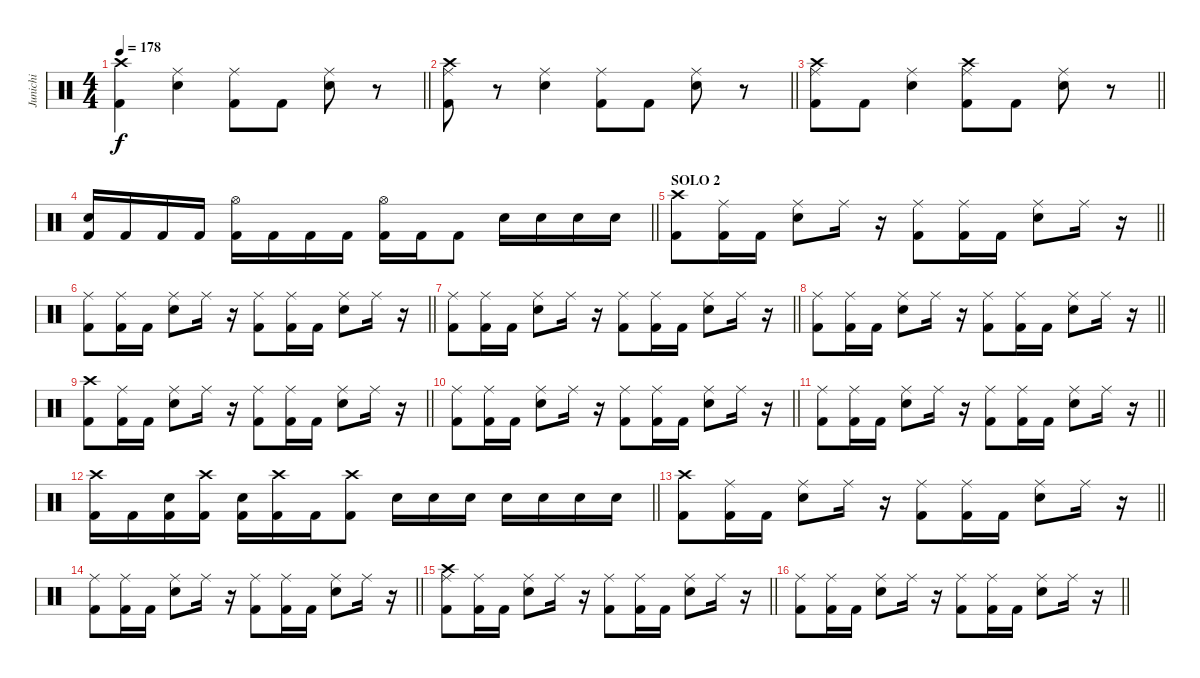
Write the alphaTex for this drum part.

\track ("Junichi" "Junichi") {instrument percussion}
\staff {score}
\articulation defaults
\ts (4 4)
\tempo 178
\clef neutral
\barLineRight lightlight
\ks c
("Crash high (hit)" "Kick (hit) 2").4{dy f} ("Ride (middle)" "Snare (hit) 2").4 ("Ride (middle)" "Kick (hit) 2").8 "Kick (hit) 2".8 ("Ride (middle)" "Snare (hit) 2").8 r.8 |
\barLineRight lightlight
("Crash high (hit)" "Ride (middle)" "Kick (hit) 2").8 r.8 ("Ride (middle)" "Snare (hit) 2").4 ("Ride (middle)" "Kick (hit) 2").8 "Kick (hit) 2".8 ("Ride (middle)" "Snare (hit) 2").8 r.8 |
\barLineRight lightlight
("Crash high (hit)" "Ride (middle)" "Kick (hit) 2").8 "Kick (hit) 2".8 ("Ride (middle)" "Snare (hit) 2").4 ("Crash high (hit)" "Ride (middle)" "Kick (hit) 2").8 "Kick (hit) 2".8 ("Ride (middle)" "Snare (hit) 2").8 r.8 |
\barLineRight lightlight
("Snare (hit) 2" "Kick (hit) 2").16 "Kick (hit) 2".16 "Kick (hit) 2".16 "Kick (hit) 2".16 ("Hi-Hat (open)" "Kick (hit) 2").16 "Kick (hit) 2".16 "Kick (hit) 2".16 "Kick (hit) 2".16 ("Hi-Hat (open)" "Kick (hit) 2").16 "Kick (hit) 2".16 "Kick (hit) 2".8 "Snare (hit) 2".16 "Snare (hit) 2".16 "Snare (hit) 2".16 "Snare (hit) 2".16 |
\section ("" "SOLO 2")
\barLineRight lightlight
("Crash high (hit)" "Kick (hit) 2").8 ("Ride (middle)" "Kick (hit) 2").16 "Kick (hit) 2".16 ("Ride (middle)" "Snare (hit) 2").8 "Ride (middle)".16 r.16 ("Ride (middle)" "Kick (hit) 2").8 ("Ride (middle)" "Kick (hit) 2").16 "Kick (hit) 2".16 ("Ride (middle)" "Snare (hit) 2").8 "Ride (middle)".16 r.16 |
\barLineRight lightlight
("Ride (middle)" "Kick (hit) 2").8 ("Ride (middle)" "Kick (hit) 2").16 "Kick (hit) 2".16 ("Ride (middle)" "Snare (hit) 2").8 "Ride (middle)".16 r.16 ("Ride (middle)" "Kick (hit) 2").8 ("Ride (middle)" "Kick (hit) 2").16 "Kick (hit) 2".16 ("Ride (middle)" "Snare (hit) 2").8 "Ride (middle)".16 r.16 |
\barLineRight lightlight
("Ride (middle)" "Kick (hit) 2").8 ("Ride (middle)" "Kick (hit) 2").16 "Kick (hit) 2".16 ("Ride (middle)" "Snare (hit) 2").8 "Ride (middle)".16 r.16 ("Ride (middle)" "Kick (hit) 2").8 ("Ride (middle)" "Kick (hit) 2").16 "Kick (hit) 2".16 ("Ride (middle)" "Snare (hit) 2").8 "Ride (middle)".16 r.16 |
\barLineRight lightlight
("Ride (middle)" "Kick (hit) 2").8 ("Ride (middle)" "Kick (hit) 2").16 "Kick (hit) 2".16 ("Ride (middle)" "Snare (hit) 2").8 "Ride (middle)".16 r.16 ("Ride (middle)" "Kick (hit) 2").8 ("Ride (middle)" "Kick (hit) 2").16 "Kick (hit) 2".16 ("Ride (middle)" "Snare (hit) 2").8 "Ride (middle)".16 r.16 |
\barLineRight lightlight
("Crash high (hit)" "Kick (hit) 2").8 ("Ride (middle)" "Kick (hit) 2").16 "Kick (hit) 2".16 ("Ride (middle)" "Snare (hit) 2").8 "Ride (middle)".16 r.16 ("Ride (middle)" "Kick (hit) 2").8 ("Ride (middle)" "Kick (hit) 2").16 "Kick (hit) 2".16 ("Ride (middle)" "Snare (hit) 2").8 "Ride (middle)".16 r.16 |
\barLineRight lightlight
("Ride (middle)" "Kick (hit) 2").8 ("Ride (middle)" "Kick (hit) 2").16 "Kick (hit) 2".16 ("Ride (middle)" "Snare (hit) 2").8 "Ride (middle)".16 r.16 ("Ride (middle)" "Kick (hit) 2").8 ("Ride (middle)" "Kick (hit) 2").16 "Kick (hit) 2".16 ("Ride (middle)" "Snare (hit) 2").8 "Ride (middle)".16 r.16 |
\barLineRight lightlight
("Ride (middle)" "Kick (hit) 2").8 ("Ride (middle)" "Kick (hit) 2").16 "Kick (hit) 2".16 ("Ride (middle)" "Snare (hit) 2").8 "Ride (middle)".16 r.16 ("Ride (middle)" "Kick (hit) 2").8 ("Ride (middle)" "Kick (hit) 2").16 "Kick (hit) 2".16 ("Ride (middle)" "Snare (hit) 2").8 "Ride (middle)".16 r.16 |
\barLineRight lightlight
("Crash high (hit)" "Kick (hit) 2").16 "Kick (hit) 2".16 ("Snare (hit) 2" "Kick (hit) 2").16 ("Crash high (hit)" "Kick (hit) 2").16 ("Snare (hit) 2" "Kick (hit) 2").16 ("Crash high (hit)" "Kick (hit) 2").16 "Kick (hit) 2".16 ("Crash high (hit)" "Kick (hit) 2").8 "Snare (hit) 2".16 "Snare (hit) 2".16 "Snare (hit) 2".16 "Snare (hit) 2".16 "Snare (hit) 2".16 "Snare (hit) 2".16 "Snare (hit) 2".16 |
\barLineRight lightlight
("Crash high (hit)" "Kick (hit) 2").8 ("Ride (middle)" "Kick (hit) 2").16 "Kick (hit) 2".16 ("Ride (middle)" "Snare (hit) 2").8 "Ride (middle)".16 r.16 ("Ride (middle)" "Kick (hit) 2").8 ("Ride (middle)" "Kick (hit) 2").16 "Kick (hit) 2".16 ("Ride (middle)" "Snare (hit) 2").8 "Ride (middle)".16 r.16 |
\barLineRight lightlight
("Ride (middle)" "Kick (hit) 2").8 ("Ride (middle)" "Kick (hit) 2").16 "Kick (hit) 2".16 ("Ride (middle)" "Snare (hit) 2").8 "Ride (middle)".16 r.16 ("Ride (middle)" "Kick (hit) 2").8 ("Ride (middle)" "Kick (hit) 2").16 "Kick (hit) 2".16 ("Ride (middle)" "Snare (hit) 2").8 "Ride (middle)".16 r.16 |
\barLineRight lightlight
("Crash high (hit)" "Ride (middle)" "Kick (hit) 2").8 ("Ride (middle)" "Kick (hit) 2").16 "Kick (hit) 2".16 ("Ride (middle)" "Snare (hit) 2").8 "Ride (middle)".16 r.16 ("Ride (middle)" "Kick (hit) 2").8 ("Ride (middle)" "Kick (hit) 2").16 "Kick (hit) 2".16 ("Ride (middle)" "Snare (hit) 2").8 "Ride (middle)".16 r.16 |
\barLineRight lightlight
("Ride (middle)" "Kick (hit) 2").8 ("Ride (middle)" "Kick (hit) 2").16 "Kick (hit) 2".16 ("Ride (middle)" "Snare (hit) 2").8 "Ride (middle)".16 r.16 ("Ride (middle)" "Kick (hit) 2").8 ("Ride (middle)" "Kick (hit) 2").16 "Kick (hit) 2".16 ("Ride (middle)" "Snare (hit) 2").8 "Ride (middle)".16 r.16
